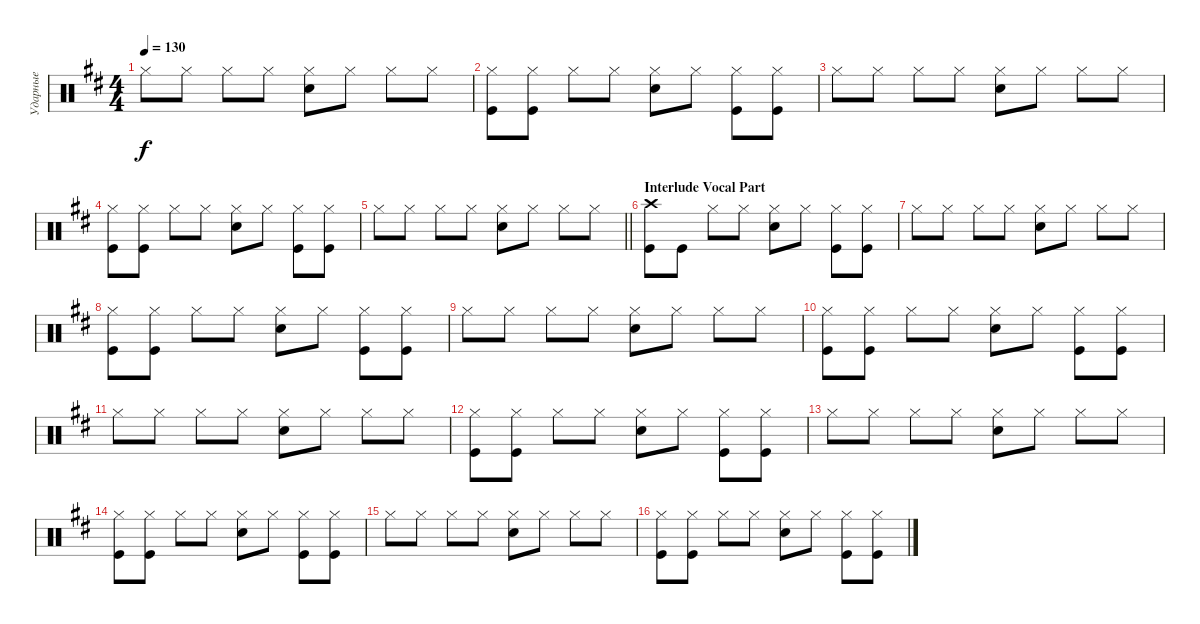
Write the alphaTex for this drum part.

\track ("Ударные" "Ударные") {instrument percussion}
\staff {score}
\articulation defaults
\ts (4 4)
\tempo 130
\clef neutral
\ks bminor "Hi-Hat (closed)".8{dy f} "Hi-Hat (closed)".8 "Hi-Hat (closed)".8 "Hi-Hat (closed)".8
("Hi-Hat (closed)" "Snare (hit) 2").8 "Hi-Hat (closed)".8 "Hi-Hat (closed)".8 "Hi-Hat (closed)".8 |
("Hi-Hat (closed)" "Kick (hit)").8 ("Hi-Hat (closed)" "Kick (hit)").8 "Hi-Hat (closed)".8 "Hi-Hat (closed)".8 ("Hi-Hat (closed)" "Snare (hit) 2").8 "Hi-Hat (closed)".8 ("Hi-Hat (closed)" "Kick (hit)").8 ("Hi-Hat (closed)" "Kick (hit)").8 |
"Hi-Hat (closed)".8 "Hi-Hat (closed)".8 "Hi-Hat (closed)".8 "Hi-Hat (closed)".8 ("Hi-Hat (closed)" "Snare (hit) 2").8 "Hi-Hat (closed)".8 "Hi-Hat (closed)".8 "Hi-Hat (closed)".8 |
("Hi-Hat (closed)" "Kick (hit)").8 ("Hi-Hat (closed)" "Kick (hit)").8 "Hi-Hat (closed)".8 "Hi-Hat (closed)".8 ("Hi-Hat (closed)" "Snare (hit) 2").8 "Hi-Hat (closed)".8 ("Hi-Hat (closed)" "Kick (hit)").8 ("Hi-Hat (closed)" "Kick (hit)").8 |
\barLineRight lightlight "Hi-Hat (closed)".8 "Hi-Hat (closed)".8 "Hi-Hat (closed)".8 "Hi-Hat (closed)".8
("Hi-Hat (closed)" "Snare (hit) 2").8 "Hi-Hat (closed)".8 "Hi-Hat (closed)".8 "Hi-Hat (closed)".8 |
\section ("" "Interlude Vocal Part")
("Crash high (hit)" "Kick (hit)").8 "Kick (hit)".8 "Hi-Hat (closed)".8 "Hi-Hat (closed)".8 ("Hi-Hat (closed)" "Snare (hit) 2").8 "Hi-Hat (closed)".8 ("Hi-Hat (closed)" "Kick (hit)").8 ("Hi-Hat (closed)" "Kick (hit)").8 |
"Hi-Hat (closed)".8 "Hi-Hat (closed)".8 "Hi-Hat (closed)".8 "Hi-Hat (closed)".8 ("Hi-Hat (closed)" "Snare (hit) 2").8 "Hi-Hat (closed)".8 "Hi-Hat (closed)".8 "Hi-Hat (closed)".8 |
("Hi-Hat (closed)" "Kick (hit)").8 ("Hi-Hat (closed)" "Kick (hit)").8 "Hi-Hat (closed)".8 "Hi-Hat (closed)".8 ("Hi-Hat (closed)" "Snare (hit) 2").8 "Hi-Hat (closed)".8 ("Hi-Hat (closed)" "Kick (hit)").8 ("Hi-Hat (closed)" "Kick (hit)").8 |
"Hi-Hat (closed)".8 "Hi-Hat (closed)".8 "Hi-Hat (closed)".8 "Hi-Hat (closed)".8 ("Hi-Hat (closed)" "Snare (hit) 2").8 "Hi-Hat (closed)".8 "Hi-Hat (closed)".8 "Hi-Hat (closed)".8 |
("Hi-Hat (closed)" "Kick (hit)").8 ("Hi-Hat (closed)" "Kick (hit)").8 "Hi-Hat (closed)".8 "Hi-Hat (closed)".8 ("Hi-Hat (closed)" "Snare (hit) 2").8 "Hi-Hat (closed)".8 ("Hi-Hat (closed)" "Kick (hit)").8 ("Hi-Hat (closed)" "Kick (hit)").8 |
"Hi-Hat (closed)".8 "Hi-Hat (closed)".8 "Hi-Hat (closed)".8 "Hi-Hat (closed)".8 ("Hi-Hat (closed)" "Snare (hit) 2").8 "Hi-Hat (closed)".8 "Hi-Hat (closed)".8 "Hi-Hat (closed)".8 |
("Hi-Hat (closed)" "Kick (hit)").8 ("Hi-Hat (closed)" "Kick (hit)").8 "Hi-Hat (closed)".8 "Hi-Hat (closed)".8 ("Hi-Hat (closed)" "Snare (hit) 2").8 "Hi-Hat (closed)".8 ("Hi-Hat (closed)" "Kick (hit)").8 ("Hi-Hat (closed)" "Kick (hit)").8 |
"Hi-Hat (closed)".8 "Hi-Hat (closed)".8 "Hi-Hat (closed)".8 "Hi-Hat (closed)".8 ("Hi-Hat (closed)" "Snare (hit) 2").8 "Hi-Hat (closed)".8 "Hi-Hat (closed)".8 "Hi-Hat (closed)".8 |
("Hi-Hat (closed)" "Kick (hit)").8 ("Hi-Hat (closed)" "Kick (hit)").8 "Hi-Hat (closed)".8 "Hi-Hat (closed)".8 ("Hi-Hat (closed)" "Snare (hit) 2").8 "Hi-Hat (closed)".8 ("Hi-Hat (closed)" "Kick (hit)").8 ("Hi-Hat (closed)" "Kick (hit)").8 |
"Hi-Hat (closed)".8 "Hi-Hat (closed)".8 "Hi-Hat (closed)".8 "Hi-Hat (closed)".8 ("Hi-Hat (closed)" "Snare (hit) 2").8 "Hi-Hat (closed)".8 "Hi-Hat (closed)".8 "Hi-Hat (closed)".8 |
("Hi-Hat (closed)" "Kick (hit)").8 ("Hi-Hat (closed)" "Kick (hit)").8 "Hi-Hat (closed)".8 "Hi-Hat (closed)".8 ("Hi-Hat (closed)" "Snare (hit) 2").8 "Hi-Hat (closed)".8 ("Hi-Hat (closed)" "Kick (hit)").8 ("Hi-Hat (closed)" "Kick (hit)").8
